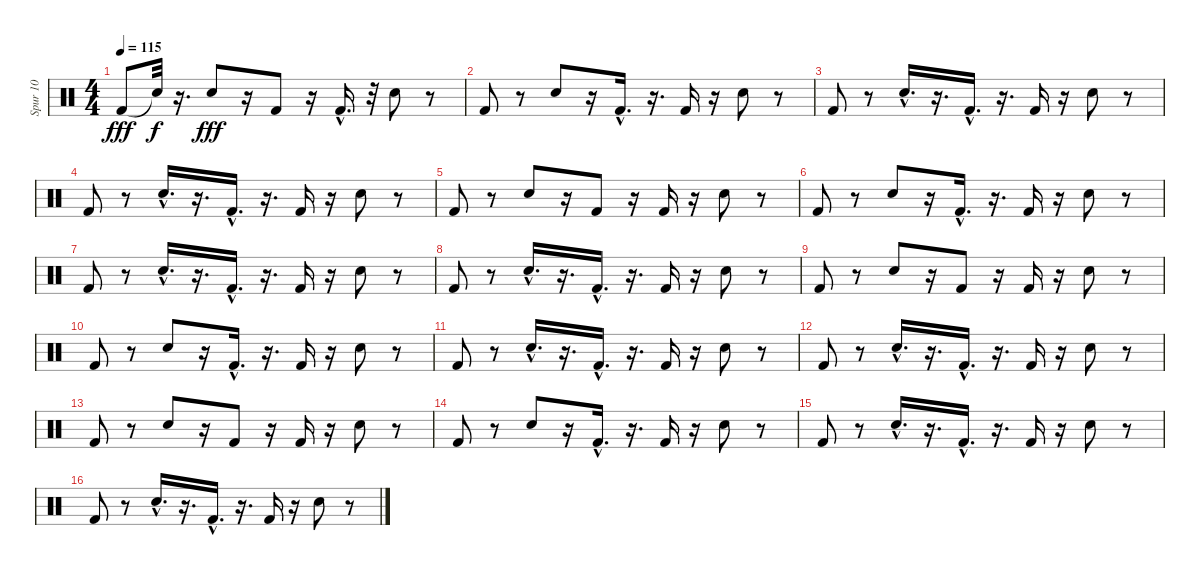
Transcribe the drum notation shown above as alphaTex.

\track ("Spur 10" "Spur 10") {instrument percussion}
\staff {score}
\articulation defaults
\ts (4 4)
\tempo 115
\clef neutral
\ks c "Kick (hit) 2".8{dy fff} "Snare (hit)"{t}.32{dy f}
r.16{d} "Snare (hit) 2".8{dy fff} r.16 "Kick (hit) 2".8 r.16 "Kick (hit) 2"{hac}.16{d} r.32 "Snare (hit) 2".8 r.8 |
"Kick (hit) 2".8 r.8 "Snare (hit) 2".8 r.16 "Kick (hit) 2"{hac}.16{d} r.16{d} "Kick (hit) 2".16 r.16 "Snare (hit) 2".8 r.8 |
"Kick (hit) 2".8 r.8 "Snare (hit) 2"{hac}.16{d} r.16{d} "Kick (hit) 2"{hac}.16{d} r.16{d} "Kick (hit) 2".16 r.16 "Snare (hit) 2".8 r.8 |
"Kick (hit) 2".8 r.8 "Snare (hit) 2"{hac}.16{d} r.16{d} "Kick (hit) 2"{hac}.16{d} r.16{d} "Kick (hit) 2".16 r.16 "Snare (hit) 2".8 r.8 |
"Kick (hit) 2".8 r.8 "Snare (hit) 2".8 r.16 "Kick (hit) 2".8 r.16 "Kick (hit) 2".16 r.16 "Snare (hit) 2".8 r.8 |
"Kick (hit) 2".8 r.8 "Snare (hit) 2".8 r.16 "Kick (hit) 2"{hac}.16{d} r.16{d} "Kick (hit) 2".16 r.16 "Snare (hit) 2".8 r.8 |
"Kick (hit) 2".8 r.8 "Snare (hit) 2"{hac}.16{d} r.16{d} "Kick (hit) 2"{hac}.16{d} r.16{d} "Kick (hit) 2".16 r.16 "Snare (hit) 2".8 r.8 |
"Kick (hit) 2".8 r.8 "Snare (hit) 2"{hac}.16{d} r.16{d} "Kick (hit) 2"{hac}.16{d} r.16{d} "Kick (hit) 2".16 r.16 "Snare (hit) 2".8 r.8 |
"Kick (hit) 2".8 r.8 "Snare (hit) 2".8 r.16 "Kick (hit) 2".8 r.16 "Kick (hit) 2".16 r.16 "Snare (hit) 2".8 r.8 |
"Kick (hit) 2".8 r.8 "Snare (hit) 2".8 r.16 "Kick (hit) 2"{hac}.16{d} r.16{d} "Kick (hit) 2".16 r.16 "Snare (hit) 2".8 r.8 |
"Kick (hit) 2".8 r.8 "Snare (hit) 2"{hac}.16{d} r.16{d} "Kick (hit) 2"{hac}.16{d} r.16{d} "Kick (hit) 2".16 r.16 "Snare (hit) 2".8 r.8 |
"Kick (hit) 2".8 r.8 "Snare (hit) 2"{hac}.16{d} r.16{d} "Kick (hit) 2"{hac}.16{d} r.16{d} "Kick (hit) 2".16 r.16 "Snare (hit) 2".8 r.8 |
"Kick (hit) 2".8 r.8 "Snare (hit) 2".8 r.16 "Kick (hit) 2".8 r.16 "Kick (hit) 2".16 r.16 "Snare (hit) 2".8 r.8 |
"Kick (hit) 2".8 r.8 "Snare (hit) 2".8 r.16 "Kick (hit) 2"{hac}.16{d} r.16{d} "Kick (hit) 2".16 r.16 "Snare (hit) 2".8 r.8 |
"Kick (hit) 2".8 r.8 "Snare (hit) 2"{hac}.16{d} r.16{d} "Kick (hit) 2"{hac}.16{d} r.16{d} "Kick (hit) 2".16 r.16 "Snare (hit) 2".8 r.8 |
"Kick (hit) 2".8 r.8 "Snare (hit) 2"{hac}.16{d} r.16{d} "Kick (hit) 2"{hac}.16{d} r.16{d} "Kick (hit) 2".16 r.16 "Snare (hit) 2".8 r.8
